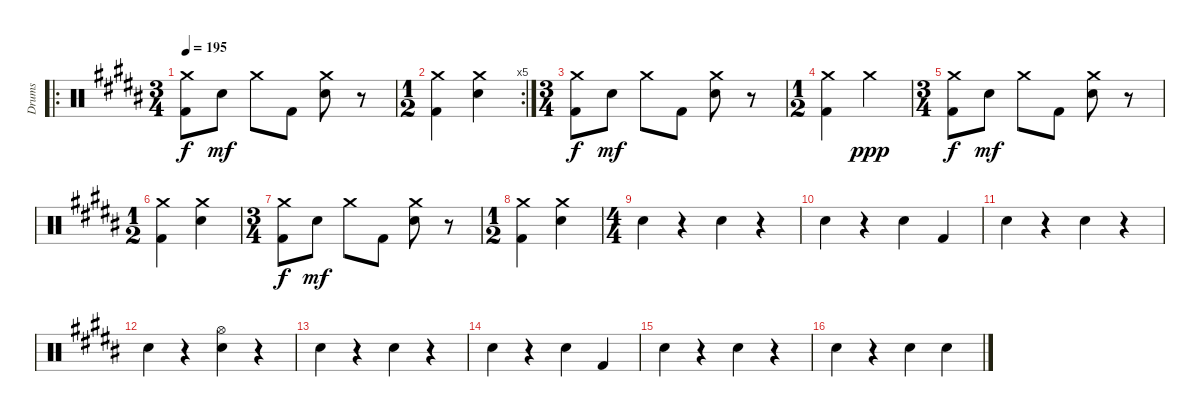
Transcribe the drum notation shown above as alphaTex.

\track ("Drums" "Drums") {instrument percussion}
\staff {score}
\articulation defaults
\ro
\ts (3 4)
\tempo 195
\clef neutral
\ks b
("Crash medium (hit)" "Kick (hit) 2").8{dy f} "Electric Snare (hit)".8{dy mf} "Crash medium (hit)".8 "Kick (hit) 2".8 ("Crash medium (hit)" "Electric Snare (hit)").8 r.8 |
\rc 5
\ts (1 2)
("Crash medium (hit)" "Kick (hit) 2").4 ("Crash medium (hit)" "Electric Snare (hit)").4 |
\ts (3 4)
("Crash medium (hit)" "Kick (hit) 2").8{dy f} "Electric Snare (hit)".8{dy mf} "Crash medium (hit)".8 "Kick (hit) 2".8 ("Crash medium (hit)" "Electric Snare (hit)").8 r.8 |
\ts (1 2)
("Crash medium (hit)" "Kick (hit) 2").4 "Crash medium (hit)".4{dy ppp} |
\ts (3 4)
("Crash medium (hit)" "Kick (hit) 2").8{dy f} "Electric Snare (hit)".8{dy mf} "Crash medium (hit)".8 "Kick (hit) 2".8 ("Crash medium (hit)" "Electric Snare (hit)").8 r.8 |
\ts (1 2)
("Crash medium (hit)" "Kick (hit) 2").4 ("Crash medium (hit)" "Electric Snare (hit)").4 |
\ts (3 4)
("Crash medium (hit)" "Kick (hit) 2").8{dy f} "Electric Snare (hit)".8{dy mf} "Crash medium (hit)".8 "Kick (hit) 2".8 ("Crash medium (hit)" "Electric Snare (hit)").8 r.8 |
\ts (1 2)
("Crash medium (hit)" "Kick (hit) 2").4 ("Crash medium (hit)" "Electric Snare (hit)").4 |
\ts (4 4)
"Electric Snare (hit)".4 r.4 "Electric Snare (hit)".4 r.4 |
"Electric Snare (hit)".4 r.4 "Electric Snare (hit)".4 "Kick (hit) 2".4 |
"Electric Snare (hit)".4 r.4 "Electric Snare (hit)".4 r.4 |
"Electric Snare (hit)".4 r.4 ("Hi-Hat (open)" "Electric Snare (hit)").4 r.4 |
"Electric Snare (hit)".4 r.4 "Electric Snare (hit)".4 r.4 |
"Electric Snare (hit)".4 r.4 "Electric Snare (hit)".4 "Kick (hit) 2".4 |
"Electric Snare (hit)".4 r.4 "Electric Snare (hit)".4 r.4 |
"Electric Snare (hit)".4 r.4 "Electric Snare (hit)".4 "Electric Snare (hit)".4
